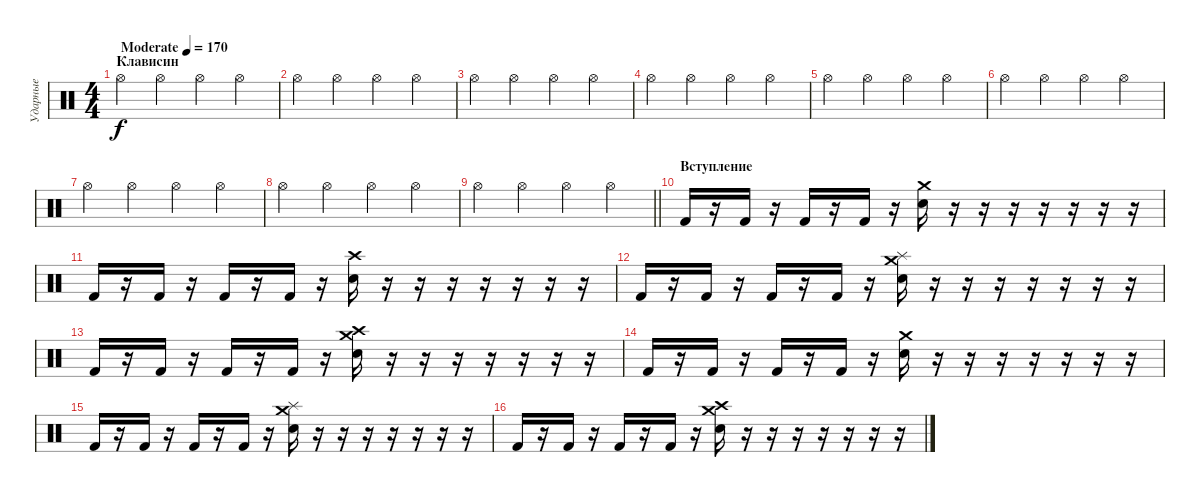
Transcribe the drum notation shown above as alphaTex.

\track ("Ударные" "Ударные") {instrument percussion}
\staff {score}
\articulation defaults
\ts (4 4)
\section ("" "Клависин")
\tempo (170 "Moderate")
\clef neutral
\ks c "Hi-Hat (open)".4{dy f} "Hi-Hat (open)".4 "Hi-Hat (open)".4 "Hi-Hat (open)".4
|
"Hi-Hat (open)".4 "Hi-Hat (open)".4 "Hi-Hat (open)".4 "Hi-Hat (open)".4 |
"Hi-Hat (open)".4 "Hi-Hat (open)".4 "Hi-Hat (open)".4 "Hi-Hat (open)".4 |
"Hi-Hat (open)".4 "Hi-Hat (open)".4 "Hi-Hat (open)".4 "Hi-Hat (open)".4 |
"Hi-Hat (open)".4 "Hi-Hat (open)".4 "Hi-Hat (open)".4 "Hi-Hat (open)".4 |
"Hi-Hat (open)".4 "Hi-Hat (open)".4 "Hi-Hat (open)".4 "Hi-Hat (open)".4 |
"Hi-Hat (open)".4 "Hi-Hat (open)".4 "Hi-Hat (open)".4 "Hi-Hat (open)".4 |
"Hi-Hat (open)".4 "Hi-Hat (open)".4 "Hi-Hat (open)".4 "Hi-Hat (open)".4 |
\barLineRight lightlight "Hi-Hat (open)".4 "Hi-Hat (open)".4 "Hi-Hat (open)".4 "Hi-Hat (open)".4
|
\section ("" "Вступление")
"Kick (hit) 2".16 r.16 "Kick (hit) 2".16 r.16 "Kick (hit) 2".16 r.16 "Kick (hit) 2".16 r.16 ("Electric Snare (hit)" "Crash medium (hit)").16 r.16 r.16 r.16 r.16 r.16 r.16 r.16 |
"Kick (hit) 2".16 r.16 "Kick (hit) 2".16 r.16 "Kick (hit) 2".16 r.16 "Kick (hit) 2".16 r.16 ("Electric Snare (hit)" "Crash high (hit)").16 r.16 r.16 r.16 r.16 r.16 r.16 r.16 |
"Kick (hit) 2".16 r.16 "Kick (hit) 2".16 r.16 "Kick (hit) 2".16 r.16 "Kick (hit) 2".16 r.16 ("Electric Snare (hit)" "Splash (hit)" "Crash medium (hit)").16 r.16 r.16 r.16 r.16 r.16 r.16 r.16 |
"Kick (hit) 2".16 r.16 "Kick (hit) 2".16 r.16 "Kick (hit) 2".16 r.16 "Kick (hit) 2".16 r.16 ("Electric Snare (hit)" "Crash high (hit)" "Crash medium (hit)").16 r.16 r.16 r.16 r.16 r.16 r.16 r.16 |
"Kick (hit) 2".16 r.16 "Kick (hit) 2".16 r.16 "Kick (hit) 2".16 r.16 "Kick (hit) 2".16 r.16 ("Electric Snare (hit)" "Crash medium (hit)").16 r.16 r.16 r.16 r.16 r.16 r.16 r.16 |
"Kick (hit) 2".16 r.16 "Kick (hit) 2".16 r.16 "Kick (hit) 2".16 r.16 "Kick (hit) 2".16 r.16 ("Electric Snare (hit)" "Splash (hit)" "Crash medium (hit)").16 r.16 r.16 r.16 r.16 r.16 r.16 r.16 |
"Kick (hit) 2".16 r.16 "Kick (hit) 2".16 r.16 "Kick (hit) 2".16 r.16 "Kick (hit) 2".16 r.16 ("Electric Snare (hit)" "Crash high (hit)" "Crash medium (hit)").16 r.16 r.16 r.16 r.16 r.16 r.16 r.16
